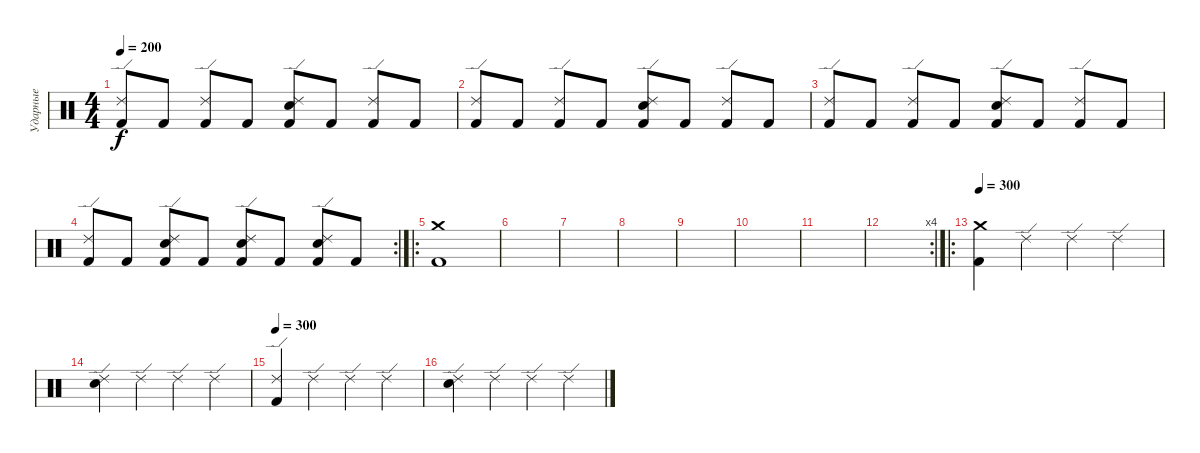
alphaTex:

\track ("Ударные" "Ударные") {instrument percussion}
\staff {score}
\articulation defaults
\ts (4 4)
\tempo 200
\clef neutral
\ks c
("Ride (edge) 2" "Kick (hit) 2").8{dy f} "Kick (hit) 2".8 ("Ride (edge) 2" "Kick (hit) 2").8 "Kick (hit) 2".8 ("Ride (edge) 2" "Snare (hit) 2" "Kick (hit) 2").8 "Kick (hit) 2".8 ("Ride (edge) 2" "Kick (hit) 2").8 "Kick (hit) 2".8 |
("Ride (edge) 2" "Kick (hit) 2").8 "Kick (hit) 2".8 ("Ride (edge) 2" "Kick (hit) 2").8 "Kick (hit) 2".8 ("Ride (edge) 2" "Snare (hit) 2" "Kick (hit) 2").8 "Kick (hit) 2".8 ("Ride (edge) 2" "Kick (hit) 2").8 "Kick (hit) 2".8 |
("Ride (edge) 2" "Kick (hit) 2").8 "Kick (hit) 2".8 ("Ride (edge) 2" "Kick (hit) 2").8 "Kick (hit) 2".8 ("Ride (edge) 2" "Snare (hit) 2" "Kick (hit) 2").8 "Kick (hit) 2".8 ("Ride (edge) 2" "Kick (hit) 2").8 "Kick (hit) 2".8 |
\rc 2
("Ride (edge) 2" "Kick (hit) 2").8 "Kick (hit) 2".8 ("Ride (edge) 2" "Snare (hit) 2" "Kick (hit) 2").8 "Kick (hit) 2".8 ("Ride (edge) 2" "Snare (hit) 2" "Kick (hit) 2").8 "Kick (hit) 2".8 ("Ride (edge) 2" "Snare (hit) 2" "Kick (hit) 2").8 "Kick (hit) 2".8 |
\ro
("Crash medium (hit)" "Kick (hit) 2").1 |
|
|
|
|
|
|
\rc 4
|
\ro
\tempo 300
("Crash medium (hit)" "Kick (hit) 2").4 "Ride (edge) 2".4 "Ride (edge) 2".4 "Ride (edge) 2".4 |
("Ride (edge) 2" "Snare (hit) 2").4 "Ride (edge) 2".4 "Ride (edge) 2".4 "Ride (edge) 2".4 |
\tempo 300
("Ride (edge) 2" "Kick (hit) 2").4 "Ride (edge) 2".4 "Ride (edge) 2".4 "Ride (edge) 2".4 |
("Ride (edge) 2" "Snare (hit) 2").4 "Ride (edge) 2".4 "Ride (edge) 2".4 "Ride (edge) 2".4
